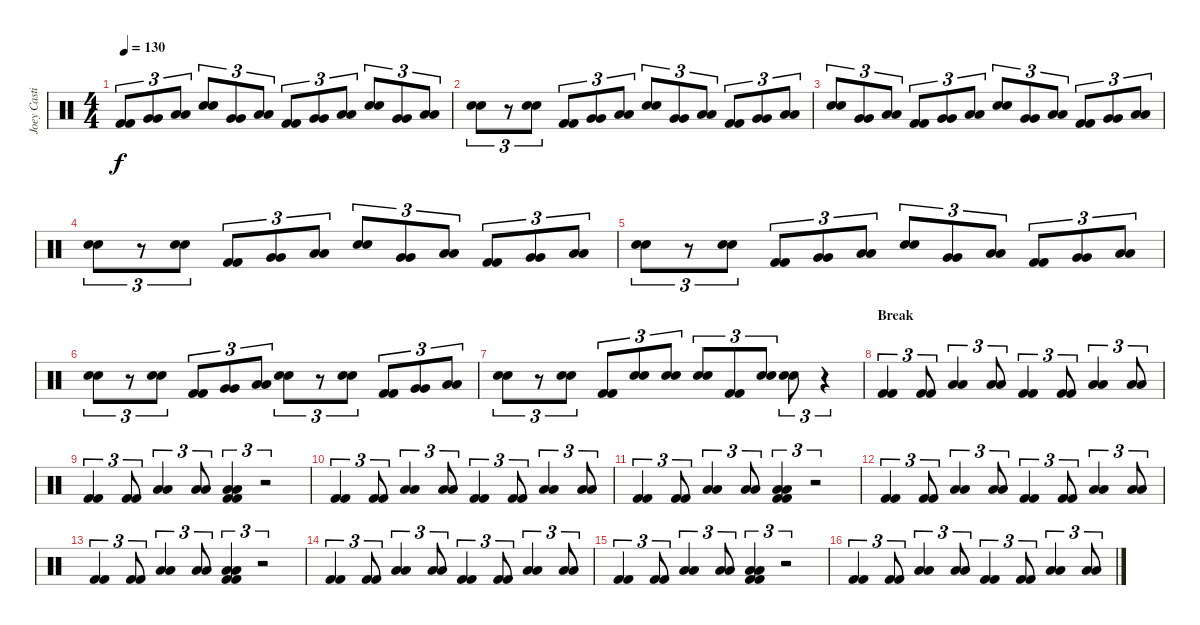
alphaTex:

\track ("Joey Castillo" "Joey Casti") {instrument percussion}
\staff {score}
\articulation defaults
\ts (4 4)
\tempo 130
\clef neutral
\ks c
("Kick (hit) 2" "Kick (hit) 2").8{tu (3 2) dy f} ("Very Low Tom (hit)" "Very Low Tom (hit)").8{tu (3 2)} ("Low Floor Tom (hit)" "Low Floor Tom (hit)").8{tu (3 2)} ("Electric Snare (hit)" "Electric Snare (hit)").8{tu (3 2)} ("Very Low Tom (hit)" "Very Low Tom (hit)").8{tu (3 2)} ("Low Floor Tom (hit)" "Low Floor Tom (hit)").8{tu (3 2)} ("Kick (hit) 2" "Kick (hit) 2").8{tu (3 2)} ("Very Low Tom (hit)" "Very Low Tom (hit)").8{tu (3 2)} ("Low Floor Tom (hit)" "Low Floor Tom (hit)").8{tu (3 2)} ("Electric Snare (hit)" "Electric Snare (hit)").8{tu (3 2)} ("Very Low Tom (hit)" "Very Low Tom (hit)").8{tu (3 2)} ("Low Floor Tom (hit)" "Low Floor Tom (hit)").8{tu (3 2)} |
("Electric Snare (hit)" "Electric Snare (hit)").8{tu (3 2)} r.8{tu (3 2)} ("Electric Snare (hit)" "Electric Snare (hit)").8{tu (3 2)} ("Kick (hit) 2" "Kick (hit) 2").8{tu (3 2)} ("Very Low Tom (hit)" "Very Low Tom (hit)").8{tu (3 2)} ("Low Floor Tom (hit)" "Low Floor Tom (hit)").8{tu (3 2)} ("Electric Snare (hit)" "Electric Snare (hit)").8{tu (3 2)} ("Very Low Tom (hit)" "Very Low Tom (hit)").8{tu (3 2)} ("Low Floor Tom (hit)" "Low Floor Tom (hit)").8{tu (3 2)} ("Kick (hit) 2" "Kick (hit) 2").8{tu (3 2)} ("Very Low Tom (hit)" "Very Low Tom (hit)").8{tu (3 2)} ("Low Floor Tom (hit)" "Low Floor Tom (hit)").8{tu (3 2)} |
("Electric Snare (hit)" "Electric Snare (hit)").8{tu (3 2)} ("Very Low Tom (hit)" "Very Low Tom (hit)").8{tu (3 2)} ("Low Floor Tom (hit)" "Low Floor Tom (hit)").8{tu (3 2)} ("Kick (hit) 2" "Kick (hit) 2").8{tu (3 2)} ("Very Low Tom (hit)" "Very Low Tom (hit)").8{tu (3 2)} ("Low Floor Tom (hit)" "Low Floor Tom (hit)").8{tu (3 2)} ("Electric Snare (hit)" "Electric Snare (hit)").8{tu (3 2)} ("Very Low Tom (hit)" "Very Low Tom (hit)").8{tu (3 2)} ("Low Floor Tom (hit)" "Low Floor Tom (hit)").8{tu (3 2)} ("Kick (hit) 2" "Kick (hit) 2").8{tu (3 2)} ("Very Low Tom (hit)" "Very Low Tom (hit)").8{tu (3 2)} ("Low Floor Tom (hit)" "Low Floor Tom (hit)").8{tu (3 2)} |
("Electric Snare (hit)" "Electric Snare (hit)").8{tu (3 2)} r.8{tu (3 2)} ("Electric Snare (hit)" "Electric Snare (hit)").8{tu (3 2)} ("Kick (hit) 2" "Kick (hit) 2").8{tu (3 2)} ("Very Low Tom (hit)" "Very Low Tom (hit)").8{tu (3 2)} ("Low Floor Tom (hit)" "Low Floor Tom (hit)").8{tu (3 2)} ("Electric Snare (hit)" "Electric Snare (hit)").8{tu (3 2)} ("Very Low Tom (hit)" "Very Low Tom (hit)").8{tu (3 2)} ("Low Floor Tom (hit)" "Low Floor Tom (hit)").8{tu (3 2)} ("Kick (hit) 2" "Kick (hit) 2").8{tu (3 2)} ("Very Low Tom (hit)" "Very Low Tom (hit)").8{tu (3 2)} ("Low Floor Tom (hit)" "Low Floor Tom (hit)").8{tu (3 2)} |
("Electric Snare (hit)" "Electric Snare (hit)").8{tu (3 2)} r.8{tu (3 2)} ("Electric Snare (hit)" "Electric Snare (hit)").8{tu (3 2)} ("Kick (hit) 2" "Kick (hit) 2").8{tu (3 2)} ("Very Low Tom (hit)" "Very Low Tom (hit)").8{tu (3 2)} ("Low Floor Tom (hit)" "Low Floor Tom (hit)").8{tu (3 2)} ("Electric Snare (hit)" "Electric Snare (hit)").8{tu (3 2)} ("Very Low Tom (hit)" "Very Low Tom (hit)").8{tu (3 2)} ("Low Floor Tom (hit)" "Low Floor Tom (hit)").8{tu (3 2)} ("Kick (hit) 2" "Kick (hit) 2").8{tu (3 2)} ("Very Low Tom (hit)" "Very Low Tom (hit)").8{tu (3 2)} ("Low Floor Tom (hit)" "Low Floor Tom (hit)").8{tu (3 2)} |
("Electric Snare (hit)" "Electric Snare (hit)").8{tu (3 2)} r.8{tu (3 2)} ("Electric Snare (hit)" "Electric Snare (hit)").8{tu (3 2)} ("Kick (hit) 2" "Kick (hit) 2").8{tu (3 2)} ("Very Low Tom (hit)" "Very Low Tom (hit)").8{tu (3 2)} ("Low Floor Tom (hit)" "Low Floor Tom (hit)").8{tu (3 2)} ("Electric Snare (hit)" "Electric Snare (hit)").8{tu (3 2)} r.8{tu (3 2)} ("Electric Snare (hit)" "Electric Snare (hit)").8{tu (3 2)} ("Kick (hit) 2" "Kick (hit) 2").8{tu (3 2)} ("Very Low Tom (hit)" "Very Low Tom (hit)").8{tu (3 2)} ("Low Floor Tom (hit)" "Low Floor Tom (hit)").8{tu (3 2)} |
("Electric Snare (hit)" "Electric Snare (hit)").8{tu (3 2)} r.8{tu (3 2)} ("Electric Snare (hit)" "Electric Snare (hit)").8{tu (3 2)} ("Kick (hit) 2" "Kick (hit) 2").8{tu (3 2)} ("Electric Snare (hit)" "Electric Snare (hit)").8{tu (3 2)} ("Electric Snare (hit)" "Electric Snare (hit)").8{tu (3 2)} ("Electric Snare (hit)" "Electric Snare (hit)").8{tu (3 2)} ("Kick (hit) 2" "Kick (hit) 2").8{tu (3 2)} ("Electric Snare (hit)" "Electric Snare (hit)").8{tu (3 2)} ("Electric Snare (hit)" "Electric Snare (hit)").8{tu (3 2)} r.4{tu (3 2)} |
\section ("" "Break")
("Kick (hit) 2" "Kick (hit) 2").4{tu (3 2)} ("Kick (hit) 2" "Kick (hit) 2").8{tu (3 2)} ("Low Floor Tom (hit)" "Low Floor Tom (hit)").4{tu (3 2)} ("Low Floor Tom (hit)" "Low Floor Tom (hit)").8{tu (3 2)} ("Kick (hit) 2" "Kick (hit) 2").4{tu (3 2)} ("Kick (hit) 2" "Kick (hit) 2").8{tu (3 2)} ("Low Floor Tom (hit)" "Low Floor Tom (hit)").4{tu (3 2)} ("Low Floor Tom (hit)" "Low Floor Tom (hit)").8{tu (3 2)} |
("Kick (hit) 2" "Kick (hit) 2").4{tu (3 2)} ("Kick (hit) 2" "Kick (hit) 2").8{tu (3 2)} ("Low Floor Tom (hit)" "Low Floor Tom (hit)").4{tu (3 2)} ("Low Floor Tom (hit)" "Low Floor Tom (hit)").8{tu (3 2)} ("Low Floor Tom (hit)" "Low Floor Tom (hit)" "Kick (hit) 2" "Kick (hit) 2").4{tu (3 2)} r.2{tu (3 2)} |
("Kick (hit) 2" "Kick (hit) 2").4{tu (3 2)} ("Kick (hit) 2" "Kick (hit) 2").8{tu (3 2)} ("Low Floor Tom (hit)" "Low Floor Tom (hit)").4{tu (3 2)} ("Low Floor Tom (hit)" "Low Floor Tom (hit)").8{tu (3 2)} ("Kick (hit) 2" "Kick (hit) 2").4{tu (3 2)} ("Kick (hit) 2" "Kick (hit) 2").8{tu (3 2)} ("Low Floor Tom (hit)" "Low Floor Tom (hit)").4{tu (3 2)} ("Low Floor Tom (hit)" "Low Floor Tom (hit)").8{tu (3 2)} |
("Kick (hit) 2" "Kick (hit) 2").4{tu (3 2)} ("Kick (hit) 2" "Kick (hit) 2").8{tu (3 2)} ("Low Floor Tom (hit)" "Low Floor Tom (hit)").4{tu (3 2)} ("Low Floor Tom (hit)" "Low Floor Tom (hit)").8{tu (3 2)} ("Low Floor Tom (hit)" "Low Floor Tom (hit)" "Kick (hit) 2" "Kick (hit) 2").4{tu (3 2)} r.2{tu (3 2)} |
("Kick (hit) 2" "Kick (hit) 2").4{tu (3 2)} ("Kick (hit) 2" "Kick (hit) 2").8{tu (3 2)} ("Low Floor Tom (hit)" "Low Floor Tom (hit)").4{tu (3 2)} ("Low Floor Tom (hit)" "Low Floor Tom (hit)").8{tu (3 2)} ("Kick (hit) 2" "Kick (hit) 2").4{tu (3 2)} ("Kick (hit) 2" "Kick (hit) 2").8{tu (3 2)} ("Low Floor Tom (hit)" "Low Floor Tom (hit)").4{tu (3 2)} ("Low Floor Tom (hit)" "Low Floor Tom (hit)").8{tu (3 2)} |
("Kick (hit) 2" "Kick (hit) 2").4{tu (3 2)} ("Kick (hit) 2" "Kick (hit) 2").8{tu (3 2)} ("Low Floor Tom (hit)" "Low Floor Tom (hit)").4{tu (3 2)} ("Low Floor Tom (hit)" "Low Floor Tom (hit)").8{tu (3 2)} ("Low Floor Tom (hit)" "Low Floor Tom (hit)" "Kick (hit) 2" "Kick (hit) 2").4{tu (3 2)} r.2{tu (3 2)} |
("Kick (hit) 2" "Kick (hit) 2").4{tu (3 2)} ("Kick (hit) 2" "Kick (hit) 2").8{tu (3 2)} ("Low Floor Tom (hit)" "Low Floor Tom (hit)").4{tu (3 2)} ("Low Floor Tom (hit)" "Low Floor Tom (hit)").8{tu (3 2)} ("Kick (hit) 2" "Kick (hit) 2").4{tu (3 2)} ("Kick (hit) 2" "Kick (hit) 2").8{tu (3 2)} ("Low Floor Tom (hit)" "Low Floor Tom (hit)").4{tu (3 2)} ("Low Floor Tom (hit)" "Low Floor Tom (hit)").8{tu (3 2)} |
("Kick (hit) 2" "Kick (hit) 2").4{tu (3 2)} ("Kick (hit) 2" "Kick (hit) 2").8{tu (3 2)} ("Low Floor Tom (hit)" "Low Floor Tom (hit)").4{tu (3 2)} ("Low Floor Tom (hit)" "Low Floor Tom (hit)").8{tu (3 2)} ("Low Floor Tom (hit)" "Low Floor Tom (hit)" "Kick (hit) 2" "Kick (hit) 2").4{tu (3 2)} r.2{tu (3 2)} |
("Kick (hit) 2" "Kick (hit) 2").4{tu (3 2)} ("Kick (hit) 2" "Kick (hit) 2").8{tu (3 2)} ("Low Floor Tom (hit)" "Low Floor Tom (hit)").4{tu (3 2)} ("Low Floor Tom (hit)" "Low Floor Tom (hit)").8{tu (3 2)} ("Kick (hit) 2" "Kick (hit) 2").4{tu (3 2)} ("Kick (hit) 2" "Kick (hit) 2").8{tu (3 2)} ("Low Floor Tom (hit)" "Low Floor Tom (hit)").4{tu (3 2)} ("Low Floor Tom (hit)" "Low Floor Tom (hit)").8{tu (3 2)}
